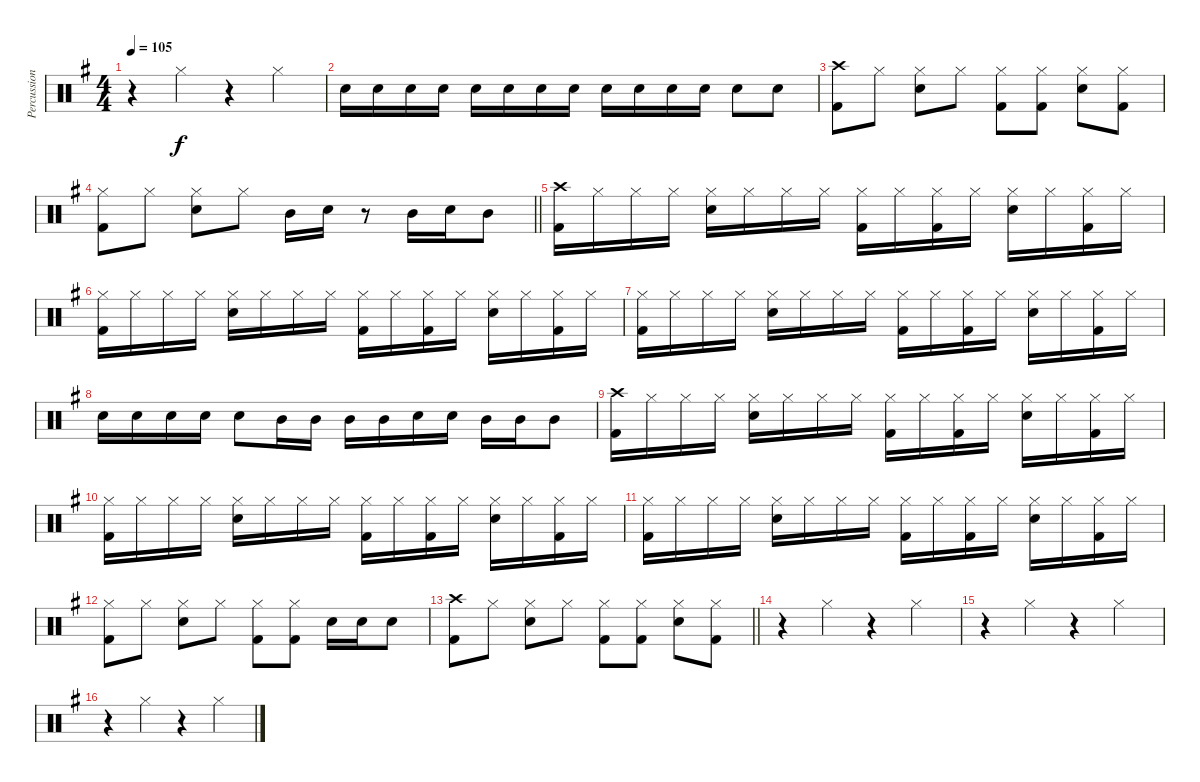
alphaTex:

\track ("Percussion" "Percussion") {instrument percussion}
\staff {score}
\articulation defaults
\ts (4 4)
\tempo 105
\clef neutral
\ks g
r.4{dy f} "Hi-Hat (closed)".4 r.4 "Hi-Hat (closed)".4 |
"Snare (hit) 2".16 "Snare (hit) 2".16 "Snare (hit) 2".16 "Snare (hit) 2".16 "Snare (hit) 2".16 "Snare (hit) 2".16 "Snare (hit) 2".16 "Snare (hit) 2".16 "Snare (hit) 2".16 "Snare (hit) 2".16 "Snare (hit) 2".16 "Snare (hit) 2".16 "Snare (hit) 2".8 "Snare (hit) 2".8 |
("Crash high (hit)" "Kick (hit) 2").8 "Hi-Hat (closed)".8 ("Hi-Hat (closed)" "Snare (hit) 2").8 "Hi-Hat (closed)".8 ("Hi-Hat (closed)" "Kick (hit) 2").8 ("Hi-Hat (closed)" "Kick (hit) 2").8 ("Hi-Hat (closed)" "Snare (hit) 2").8 ("Hi-Hat (closed)" "Kick (hit) 2").8 |
\barLineRight lightlight
("Hi-Hat (closed)" "Kick (hit) 2").8 "Hi-Hat (closed)".8 ("Hi-Hat (closed)" "Snare (hit) 2").8 "Hi-Hat (closed)".8 "Mid Tom (hit)".16 "Snare (hit) 2".16 r.8 "Mid Tom (hit)".16 "Snare (hit) 2".16 "Mid Tom (hit)".8 |
("Crash high (hit)" "Kick (hit) 2").16 "Hi-Hat (closed)".16 "Hi-Hat (closed)".16 "Hi-Hat (closed)".16 ("Hi-Hat (closed)" "Snare (hit) 2").16 "Hi-Hat (closed)".16 "Hi-Hat (closed)".16 "Hi-Hat (closed)".16 ("Hi-Hat (closed)" "Kick (hit) 2").16 "Hi-Hat (closed)".16 ("Hi-Hat (closed)" "Kick (hit) 2").16 "Hi-Hat (closed)".16 ("Hi-Hat (closed)" "Snare (hit) 2").16 "Hi-Hat (closed)".16 ("Hi-Hat (closed)" "Kick (hit) 2").16 "Hi-Hat (closed)".16 |
("Hi-Hat (closed)" "Kick (hit) 2").16 "Hi-Hat (closed)".16 "Hi-Hat (closed)".16 "Hi-Hat (closed)".16 ("Hi-Hat (closed)" "Snare (hit) 2").16 "Hi-Hat (closed)".16 "Hi-Hat (closed)".16 "Hi-Hat (closed)".16 ("Hi-Hat (closed)" "Kick (hit) 2").16 "Hi-Hat (closed)".16 ("Hi-Hat (closed)" "Kick (hit) 2").16 "Hi-Hat (closed)".16 ("Hi-Hat (closed)" "Snare (hit) 2").16 "Hi-Hat (closed)".16 ("Hi-Hat (closed)" "Kick (hit) 2").16 "Hi-Hat (closed)".16 |
("Hi-Hat (closed)" "Kick (hit) 2").16 "Hi-Hat (closed)".16 "Hi-Hat (closed)".16 "Hi-Hat (closed)".16 ("Hi-Hat (closed)" "Snare (hit) 2").16 "Hi-Hat (closed)".16 "Hi-Hat (closed)".16 "Hi-Hat (closed)".16 ("Hi-Hat (closed)" "Kick (hit) 2").16 "Hi-Hat (closed)".16 ("Hi-Hat (closed)" "Kick (hit) 2").16 "Hi-Hat (closed)".16 ("Hi-Hat (closed)" "Snare (hit) 2").16 "Hi-Hat (closed)".16 ("Hi-Hat (closed)" "Kick (hit) 2").16 "Hi-Hat (closed)".16 |
"Snare (hit) 2".16 "Snare (hit) 2".16 "Snare (hit) 2".16 "Snare (hit) 2".16 "Snare (hit) 2".8 "Mid Tom (hit)".16 "Mid Tom (hit)".16 "Mid Tom (hit)".16 "Mid Tom (hit)".16 "Snare (hit) 2".16 "Snare (hit) 2".16 "Mid Tom (hit)".16 "Mid Tom (hit)".16 "Mid Tom (hit)".8 |
("Crash high (hit)" "Kick (hit) 2").16 "Hi-Hat (closed)".16 "Hi-Hat (closed)".16 "Hi-Hat (closed)".16 ("Hi-Hat (closed)" "Snare (hit) 2").16 "Hi-Hat (closed)".16 "Hi-Hat (closed)".16 "Hi-Hat (closed)".16 ("Hi-Hat (closed)" "Kick (hit) 2").16 "Hi-Hat (closed)".16 ("Hi-Hat (closed)" "Kick (hit) 2").16 "Hi-Hat (closed)".16 ("Hi-Hat (closed)" "Snare (hit) 2").16 "Hi-Hat (closed)".16 ("Hi-Hat (closed)" "Kick (hit) 2").16 "Hi-Hat (closed)".16 |
("Hi-Hat (closed)" "Kick (hit) 2").16 "Hi-Hat (closed)".16 "Hi-Hat (closed)".16 "Hi-Hat (closed)".16 ("Hi-Hat (closed)" "Snare (hit) 2").16 "Hi-Hat (closed)".16 "Hi-Hat (closed)".16 "Hi-Hat (closed)".16 ("Hi-Hat (closed)" "Kick (hit) 2").16 "Hi-Hat (closed)".16 ("Hi-Hat (closed)" "Kick (hit) 2").16 "Hi-Hat (closed)".16 ("Hi-Hat (closed)" "Snare (hit) 2").16 "Hi-Hat (closed)".16 ("Hi-Hat (closed)" "Kick (hit) 2").16 "Hi-Hat (closed)".16 |
("Hi-Hat (closed)" "Kick (hit) 2").16 "Hi-Hat (closed)".16 "Hi-Hat (closed)".16 "Hi-Hat (closed)".16 ("Hi-Hat (closed)" "Snare (hit) 2").16 "Hi-Hat (closed)".16 "Hi-Hat (closed)".16 "Hi-Hat (closed)".16 ("Hi-Hat (closed)" "Kick (hit) 2").16 "Hi-Hat (closed)".16 ("Hi-Hat (closed)" "Kick (hit) 2").16 "Hi-Hat (closed)".16 ("Hi-Hat (closed)" "Snare (hit) 2").16 "Hi-Hat (closed)".16 ("Hi-Hat (closed)" "Kick (hit) 2").16 "Hi-Hat (closed)".16 |
("Hi-Hat (closed)" "Kick (hit) 2").8 "Hi-Hat (closed)".8 ("Hi-Hat (closed)" "Snare (hit) 2").8 "Hi-Hat (closed)".8 ("Hi-Hat (closed)" "Kick (hit) 2").8 ("Hi-Hat (closed)" "Kick (hit) 2").8 "Snare (hit) 2".16 "Snare (hit) 2".16 "Snare (hit) 2".8 |
\barLineRight lightlight
("Crash high (hit)" "Kick (hit) 2").8 "Hi-Hat (closed)".8 ("Hi-Hat (closed)" "Snare (hit) 2").8 "Hi-Hat (closed)".8 ("Hi-Hat (closed)" "Kick (hit) 2").8 ("Hi-Hat (closed)" "Kick (hit) 2").8 ("Hi-Hat (closed)" "Snare (hit) 2").8 ("Hi-Hat (closed)" "Kick (hit) 2").8 |
r.4 "Hi-Hat (closed)".4 r.4 "Hi-Hat (closed)".4 |
r.4 "Hi-Hat (closed)".4 r.4 "Hi-Hat (closed)".4 |
r.4 "Hi-Hat (closed)".4 r.4 "Hi-Hat (closed)".4
